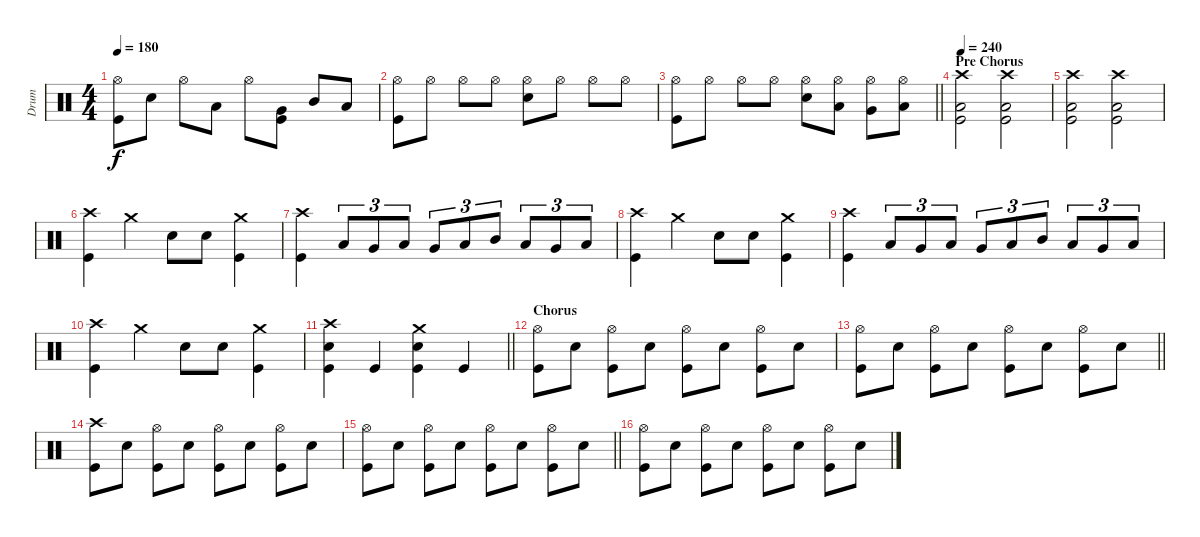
\track ("Drum" "Drum") {instrument percussion}
\staff {score}
\articulation defaults
\ts (4 4)
\tempo 180
\clef neutral
\ks c
("Hi-Hat (open)" "Kick (hit)").8{dy f} "Snare (hit) 2".8 "Hi-Hat (open)".8 "Low Tom (hit)".8 "Hi-Hat (open)".8 ("Very Low Tom (hit)" "Kick (hit)").8 "Mid Tom (hit)".8 "Low Tom (hit)".8 |
("Hi-Hat (open)" "Kick (hit)").8 "Hi-Hat (open)".8 "Hi-Hat (open)".8 "Hi-Hat (open)".8 ("Hi-Hat (open)" "Snare (hit) 2").8 "Hi-Hat (open)".8 "Hi-Hat (open)".8 "Hi-Hat (open)".8 |
\barLineRight lightlight
("Hi-Hat (open)" "Kick (hit)").8 "Hi-Hat (open)".8 "Hi-Hat (open)".8 "Hi-Hat (open)".8 ("Hi-Hat (open)" "Snare (hit) 2").8 ("Hi-Hat (open)" "Low Tom (hit)").8 ("Hi-Hat (open)" "Very Low Tom (hit)").8 ("Hi-Hat (open)" "Low Floor Tom (hit)").8 |
\section ("" "Pre Chorus")
\tempo 240
("Crash high (hit)" "Low Floor Tom (hit)" "Kick (hit)").2 ("Crash high (hit)" "Low Floor Tom (hit)" "Kick (hit)").2 |
("Crash high (hit)" "Low Floor Tom (hit)" "Kick (hit)").2 ("Crash high (hit)" "Low Floor Tom (hit)" "Kick (hit)").2 |
("Crash high (hit)" "Kick (hit)").4 "Crash medium (hit)".4 "Snare (hit) 2".8 "Snare (hit) 2".8 ("Crash medium (hit)" "Kick (hit)").4 |
("Crash high (hit)" "Kick (hit)").4 "Low Floor Tom (hit)".8{tu (3 2)} "Very Low Tom (hit)".8{tu (3 2)} "Low Tom (hit)".8{tu (3 2)} "Very Low Tom (hit)".8{tu (3 2)} "Low Tom (hit)".8{tu (3 2)} "Mid Tom (hit)".8{tu (3 2)} "Low Tom (hit)".8{tu (3 2)} "Very Low Tom (hit)".8{tu (3 2)} "Low Tom (hit)".8{tu (3 2)} |
("Crash high (hit)" "Kick (hit)").4 "Crash medium (hit)".4 "Snare (hit) 2".8 "Snare (hit) 2".8 ("Crash medium (hit)" "Kick (hit)").4 |
("Crash high (hit)" "Kick (hit)").4 "Low Floor Tom (hit)".8{tu (3 2)} "Very Low Tom (hit)".8{tu (3 2)} "Low Tom (hit)".8{tu (3 2)} "Very Low Tom (hit)".8{tu (3 2)} "Low Tom (hit)".8{tu (3 2)} "Mid Tom (hit)".8{tu (3 2)} "Low Tom (hit)".8{tu (3 2)} "Very Low Tom (hit)".8{tu (3 2)} "Low Tom (hit)".8{tu (3 2)} |
("Crash high (hit)" "Kick (hit)").4 "Crash medium (hit)".4 "Snare (hit) 2".8 "Snare (hit) 2".8 ("Crash medium (hit)" "Kick (hit)").4 |
\barLineRight lightlight
("Crash high (hit)" "Snare (hit) 2" "Kick (hit)").4 "Kick (hit)".4 ("Crash medium (hit)" "Snare (hit) 2" "Kick (hit)").4 "Kick (hit)".4 |
\section ("" "Chorus")
("Hi-Hat (open)" "Kick (hit)").8 "Snare (hit) 2".8 ("Hi-Hat (open)" "Kick (hit)").8 "Snare (hit) 2".8 ("Hi-Hat (open)" "Kick (hit)").8 "Snare (hit) 2".8 ("Hi-Hat (open)" "Kick (hit)").8 "Snare (hit) 2".8 |
\barLineRight lightlight
("Hi-Hat (open)" "Kick (hit)").8 "Snare (hit) 2".8 ("Hi-Hat (open)" "Kick (hit)").8 "Snare (hit) 2".8 ("Hi-Hat (open)" "Kick (hit)").8 "Snare (hit) 2".8 ("Hi-Hat (open)" "Kick (hit)").8 "Snare (hit) 2".8 |
("Crash high (hit)" "Kick (hit)").8 "Snare (hit) 2".8 ("Hi-Hat (open)" "Kick (hit)").8 "Snare (hit) 2".8 ("Hi-Hat (open)" "Kick (hit)").8 "Snare (hit) 2".8 ("Hi-Hat (open)" "Kick (hit)").8 "Snare (hit) 2".8 |
\barLineRight lightlight
("Hi-Hat (open)" "Kick (hit)").8 "Snare (hit) 2".8 ("Hi-Hat (open)" "Kick (hit)").8 "Snare (hit) 2".8 ("Hi-Hat (open)" "Kick (hit)").8 "Snare (hit) 2".8 ("Hi-Hat (open)" "Kick (hit)").8 "Snare (hit) 2".8 |
("Hi-Hat (open)" "Kick (hit)").8 "Snare (hit) 2".8 ("Hi-Hat (open)" "Kick (hit)").8 "Snare (hit) 2".8 ("Hi-Hat (open)" "Kick (hit)").8 "Snare (hit) 2".8 ("Hi-Hat (open)" "Kick (hit)").8 "Snare (hit) 2".8
